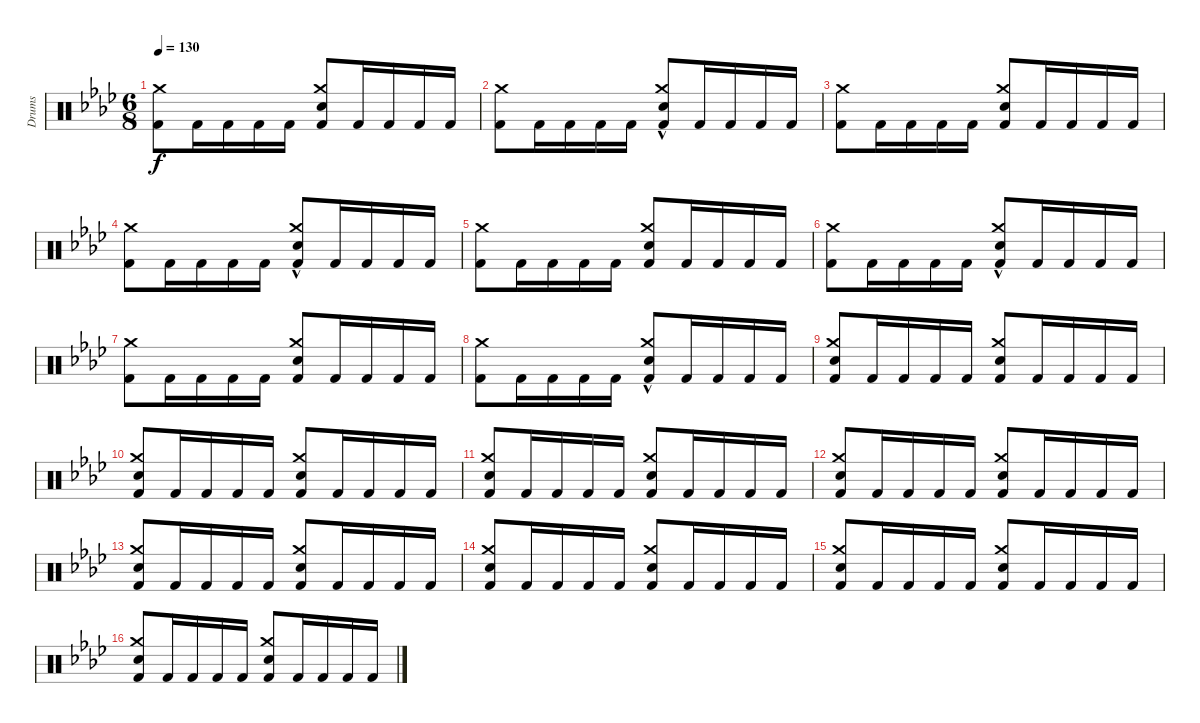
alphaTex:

\track ("Drums" "Drums") {instrument percussion}
\staff {score}
\articulation defaults
\ts (6 8)
\tempo 130
\clef neutral
\ks ab
("Kick (hit) 2" "Crash medium (hit)").8{dy f} "Kick (hit) 2".16 "Kick (hit) 2".16 "Kick (hit) 2".16 "Kick (hit) 2".16 ("Kick (hit) 2" "Electric Snare (hit)" "Crash medium (hit)").8 "Kick (hit) 2".16 "Kick (hit) 2".16 "Kick (hit) 2".16 "Kick (hit) 2".16 |
("Kick (hit) 2" "Crash medium (hit)").8 "Kick (hit) 2".16 "Kick (hit) 2".16 "Kick (hit) 2".16 "Kick (hit) 2".16 ("Kick (hit) 2" "Electric Snare (hit)" "Crash medium (hit)"{hac}).8 "Kick (hit) 2".16 "Kick (hit) 2".16 "Kick (hit) 2".16 "Kick (hit) 2".16 |
("Kick (hit) 2" "Crash medium (hit)").8 "Kick (hit) 2".16 "Kick (hit) 2".16 "Kick (hit) 2".16 "Kick (hit) 2".16 ("Kick (hit) 2" "Electric Snare (hit)" "Crash medium (hit)").8 "Kick (hit) 2".16 "Kick (hit) 2".16 "Kick (hit) 2".16 "Kick (hit) 2".16 |
("Kick (hit) 2" "Crash medium (hit)").8 "Kick (hit) 2".16 "Kick (hit) 2".16 "Kick (hit) 2".16 "Kick (hit) 2".16 ("Kick (hit) 2" "Electric Snare (hit)" "Crash medium (hit)"{hac}).8 "Kick (hit) 2".16 "Kick (hit) 2".16 "Kick (hit) 2".16 "Kick (hit) 2".16 |
("Kick (hit) 2" "Crash medium (hit)").8 "Kick (hit) 2".16 "Kick (hit) 2".16 "Kick (hit) 2".16 "Kick (hit) 2".16 ("Kick (hit) 2" "Electric Snare (hit)" "Crash medium (hit)").8 "Kick (hit) 2".16 "Kick (hit) 2".16 "Kick (hit) 2".16 "Kick (hit) 2".16 |
("Kick (hit) 2" "Crash medium (hit)").8 "Kick (hit) 2".16 "Kick (hit) 2".16 "Kick (hit) 2".16 "Kick (hit) 2".16 ("Kick (hit) 2" "Electric Snare (hit)" "Crash medium (hit)"{hac}).8 "Kick (hit) 2".16 "Kick (hit) 2".16 "Kick (hit) 2".16 "Kick (hit) 2".16 |
("Kick (hit) 2" "Crash medium (hit)").8 "Kick (hit) 2".16 "Kick (hit) 2".16 "Kick (hit) 2".16 "Kick (hit) 2".16 ("Kick (hit) 2" "Electric Snare (hit)" "Crash medium (hit)").8 "Kick (hit) 2".16 "Kick (hit) 2".16 "Kick (hit) 2".16 "Kick (hit) 2".16 |
("Kick (hit) 2" "Crash medium (hit)").8 "Kick (hit) 2".16 "Kick (hit) 2".16 "Kick (hit) 2".16 "Kick (hit) 2".16 ("Kick (hit) 2" "Electric Snare (hit)" "Crash medium (hit)"{hac}).8 "Kick (hit) 2".16 "Kick (hit) 2".16 "Kick (hit) 2".16 "Kick (hit) 2".16 |
("Kick (hit) 2" "Electric Snare (hit)" "Crash medium (hit)").8 "Kick (hit) 2".16 "Kick (hit) 2".16 "Kick (hit) 2".16 "Kick (hit) 2".16 ("Kick (hit) 2" "Electric Snare (hit)" "Crash medium (hit)").8 "Kick (hit) 2".16 "Kick (hit) 2".16 "Kick (hit) 2".16 "Kick (hit) 2".16 |
("Kick (hit) 2" "Electric Snare (hit)" "Crash medium (hit)").8 "Kick (hit) 2".16 "Kick (hit) 2".16 "Kick (hit) 2".16 "Kick (hit) 2".16 ("Kick (hit) 2" "Electric Snare (hit)" "Crash medium (hit)").8 "Kick (hit) 2".16 "Kick (hit) 2".16 "Kick (hit) 2".16 "Kick (hit) 2".16 |
("Kick (hit) 2" "Electric Snare (hit)" "Crash medium (hit)").8 "Kick (hit) 2".16 "Kick (hit) 2".16 "Kick (hit) 2".16 "Kick (hit) 2".16 ("Kick (hit) 2" "Electric Snare (hit)" "Crash medium (hit)").8 "Kick (hit) 2".16 "Kick (hit) 2".16 "Kick (hit) 2".16 "Kick (hit) 2".16 |
("Kick (hit) 2" "Electric Snare (hit)" "Crash medium (hit)").8 "Kick (hit) 2".16 "Kick (hit) 2".16 "Kick (hit) 2".16 "Kick (hit) 2".16 ("Kick (hit) 2" "Electric Snare (hit)" "Crash medium (hit)").8 "Kick (hit) 2".16 "Kick (hit) 2".16 "Kick (hit) 2".16 "Kick (hit) 2".16 |
("Kick (hit) 2" "Electric Snare (hit)" "Crash medium (hit)").8 "Kick (hit) 2".16 "Kick (hit) 2".16 "Kick (hit) 2".16 "Kick (hit) 2".16 ("Kick (hit) 2" "Electric Snare (hit)" "Crash medium (hit)").8 "Kick (hit) 2".16 "Kick (hit) 2".16 "Kick (hit) 2".16 "Kick (hit) 2".16 |
("Kick (hit) 2" "Electric Snare (hit)" "Crash medium (hit)").8 "Kick (hit) 2".16 "Kick (hit) 2".16 "Kick (hit) 2".16 "Kick (hit) 2".16 ("Kick (hit) 2" "Electric Snare (hit)" "Crash medium (hit)").8 "Kick (hit) 2".16 "Kick (hit) 2".16 "Kick (hit) 2".16 "Kick (hit) 2".16 |
("Kick (hit) 2" "Electric Snare (hit)" "Crash medium (hit)").8 "Kick (hit) 2".16 "Kick (hit) 2".16 "Kick (hit) 2".16 "Kick (hit) 2".16 ("Kick (hit) 2" "Electric Snare (hit)" "Crash medium (hit)").8 "Kick (hit) 2".16 "Kick (hit) 2".16 "Kick (hit) 2".16 "Kick (hit) 2".16 |
("Kick (hit) 2" "Electric Snare (hit)" "Crash medium (hit)").8 "Kick (hit) 2".16 "Kick (hit) 2".16 "Kick (hit) 2".16 "Kick (hit) 2".16 ("Kick (hit) 2" "Electric Snare (hit)" "Crash medium (hit)").8 "Kick (hit) 2".16 "Kick (hit) 2".16 "Kick (hit) 2".16 "Kick (hit) 2".16
